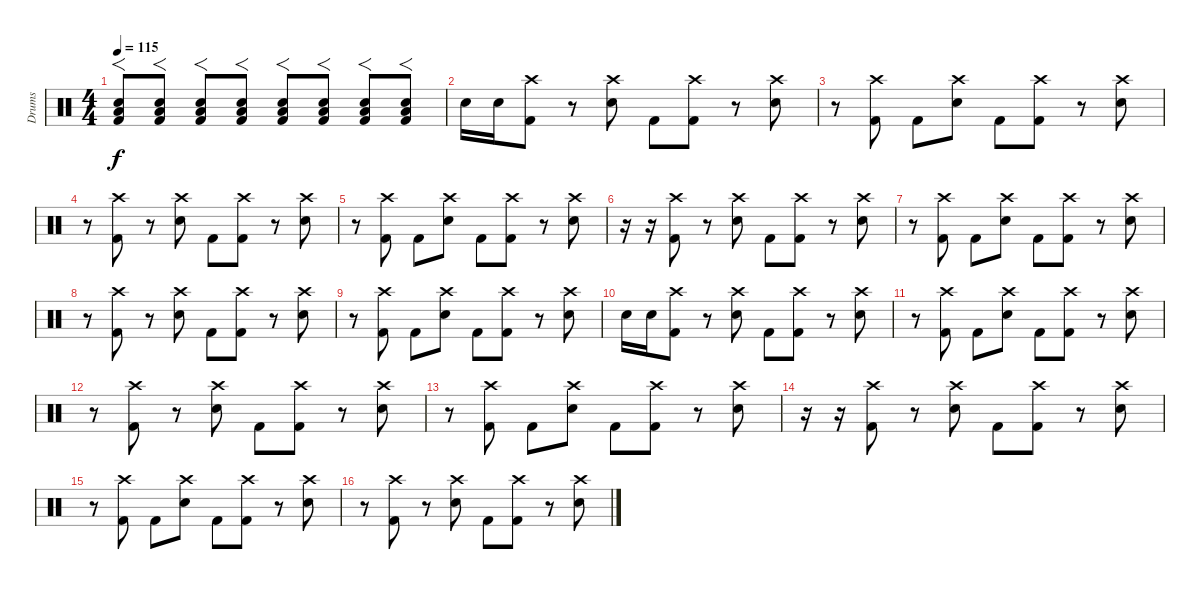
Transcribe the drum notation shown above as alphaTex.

\track ("Drums" "Drums") {instrument percussion}
\staff {score}
\articulation defaults
\ts (4 4)
\tempo 115
\clef neutral
\ks c
("Kick (hit) 2" "Low Tom (hit)" "Snare (hit) 2").8{f dy f} ("Kick (hit) 2" "Low Tom (hit)" "Snare (hit) 2").8{f} ("Kick (hit) 2" "Low Tom (hit)" "Snare (hit) 2").8{f} ("Kick (hit) 2" "Low Tom (hit)" "Snare (hit) 2").8{f} ("Kick (hit) 2" "Low Tom (hit)" "Snare (hit) 2").8{f} ("Kick (hit) 2" "Low Tom (hit)" "Snare (hit) 2").8{f} ("Kick (hit) 2" "Low Tom (hit)" "Snare (hit) 2").8{f} ("Kick (hit) 2" "Low Tom (hit)" "Snare (hit) 2").8{f} |
"Snare (hit) 2".16 "Snare (hit) 2".16 ("Kick (hit) 2" "Crash high (hit)").8 r.8 ("Snare (hit) 2" "Crash high (hit)").8 "Kick (hit) 2".8 ("Kick (hit) 2" "Crash high (hit)").8 r.8 ("Snare (hit) 2" "Crash high (hit)").8 |
r.8 ("Kick (hit) 2" "Crash high (hit)").8 "Kick (hit) 2".8 ("Snare (hit) 2" "Crash high (hit)").8 "Kick (hit) 2".8 ("Kick (hit) 2" "Crash high (hit)").8 r.8 ("Snare (hit) 2" "Crash high (hit)").8 |
r.8 ("Kick (hit) 2" "Crash high (hit)").8 r.8 ("Snare (hit) 2" "Crash high (hit)").8 "Kick (hit) 2".8 ("Kick (hit) 2" "Crash high (hit)").8 r.8 ("Snare (hit) 2" "Crash high (hit)").8 |
r.8 ("Kick (hit) 2" "Crash high (hit)").8 "Kick (hit) 2".8 ("Snare (hit) 2" "Crash high (hit)").8 "Kick (hit) 2".8 ("Kick (hit) 2" "Crash high (hit)").8 r.8 ("Snare (hit) 2" "Crash high (hit)").8 |
r.16 r.16 ("Kick (hit) 2" "Crash high (hit)").8 r.8 ("Snare (hit) 2" "Crash high (hit)").8 "Kick (hit) 2".8 ("Kick (hit) 2" "Crash high (hit)").8 r.8 ("Snare (hit) 2" "Crash high (hit)").8 |
r.8 ("Kick (hit) 2" "Crash high (hit)").8 "Kick (hit) 2".8 ("Snare (hit) 2" "Crash high (hit)").8 "Kick (hit) 2".8 ("Kick (hit) 2" "Crash high (hit)").8 r.8 ("Snare (hit) 2" "Crash high (hit)").8 |
r.8 ("Kick (hit) 2" "Crash high (hit)").8 r.8 ("Snare (hit) 2" "Crash high (hit)").8 "Kick (hit) 2".8 ("Kick (hit) 2" "Crash high (hit)").8 r.8 ("Snare (hit) 2" "Crash high (hit)").8 |
r.8 ("Kick (hit) 2" "Crash high (hit)").8 "Kick (hit) 2".8 ("Snare (hit) 2" "Crash high (hit)").8 "Kick (hit) 2".8 ("Kick (hit) 2" "Crash high (hit)").8 r.8 ("Snare (hit) 2" "Crash high (hit)").8 |
"Snare (hit) 2".16 "Snare (hit) 2".16 ("Kick (hit) 2" "Crash high (hit)").8 r.8 ("Snare (hit) 2" "Crash high (hit)").8 "Kick (hit) 2".8 ("Kick (hit) 2" "Crash high (hit)").8 r.8 ("Snare (hit) 2" "Crash high (hit)").8 |
r.8 ("Kick (hit) 2" "Crash high (hit)").8 "Kick (hit) 2".8 ("Snare (hit) 2" "Crash high (hit)").8 "Kick (hit) 2".8 ("Kick (hit) 2" "Crash high (hit)").8 r.8 ("Snare (hit) 2" "Crash high (hit)").8 |
r.8 ("Kick (hit) 2" "Crash high (hit)").8 r.8 ("Snare (hit) 2" "Crash high (hit)").8 "Kick (hit) 2".8 ("Kick (hit) 2" "Crash high (hit)").8 r.8 ("Snare (hit) 2" "Crash high (hit)").8 |
r.8 ("Kick (hit) 2" "Crash high (hit)").8 "Kick (hit) 2".8 ("Snare (hit) 2" "Crash high (hit)").8 "Kick (hit) 2".8 ("Kick (hit) 2" "Crash high (hit)").8 r.8 ("Snare (hit) 2" "Crash high (hit)").8 |
r.16 r.16 ("Kick (hit) 2" "Crash high (hit)").8 r.8 ("Snare (hit) 2" "Crash high (hit)").8 "Kick (hit) 2".8 ("Kick (hit) 2" "Crash high (hit)").8 r.8 ("Snare (hit) 2" "Crash high (hit)").8 |
r.8 ("Kick (hit) 2" "Crash high (hit)").8 "Kick (hit) 2".8 ("Snare (hit) 2" "Crash high (hit)").8 "Kick (hit) 2".8 ("Kick (hit) 2" "Crash high (hit)").8 r.8 ("Snare (hit) 2" "Crash high (hit)").8 |
r.8 ("Kick (hit) 2" "Crash high (hit)").8 r.8 ("Snare (hit) 2" "Crash high (hit)").8 "Kick (hit) 2".8 ("Kick (hit) 2" "Crash high (hit)").8 r.8 ("Snare (hit) 2" "Crash high (hit)").8
